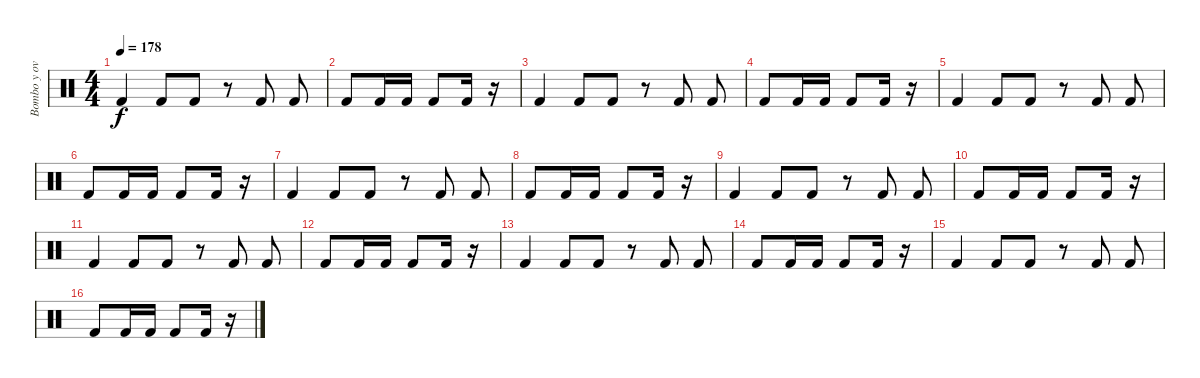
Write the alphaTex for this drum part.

\track ("Bombo y overdubs (bateria)" "Bombo y ov") {instrument percussion}
\staff {score}
\articulation defaults
\ts (4 4)
\tempo 178
\clef neutral
\ks c "Kick (hit) 2".4{dy f} "Kick (hit) 2".8 "Kick (hit) 2".8
r.8 "Kick (hit) 2".8 "Kick (hit) 2".8 |
"Kick (hit) 2".8 "Kick (hit) 2".16 "Kick (hit) 2".16 "Kick (hit) 2".8 "Kick (hit) 2".16 r.16 |
"Kick (hit) 2".4 "Kick (hit) 2".8 "Kick (hit) 2".8 r.8 "Kick (hit) 2".8 "Kick (hit) 2".8 |
"Kick (hit) 2".8 "Kick (hit) 2".16 "Kick (hit) 2".16 "Kick (hit) 2".8 "Kick (hit) 2".16 r.16 |
"Kick (hit) 2".4 "Kick (hit) 2".8 "Kick (hit) 2".8 r.8 "Kick (hit) 2".8 "Kick (hit) 2".8 |
"Kick (hit) 2".8 "Kick (hit) 2".16 "Kick (hit) 2".16 "Kick (hit) 2".8 "Kick (hit) 2".16 r.16 |
"Kick (hit) 2".4 "Kick (hit) 2".8 "Kick (hit) 2".8 r.8 "Kick (hit) 2".8 "Kick (hit) 2".8 |
"Kick (hit) 2".8 "Kick (hit) 2".16 "Kick (hit) 2".16 "Kick (hit) 2".8 "Kick (hit) 2".16 r.16 |
"Kick (hit) 2".4 "Kick (hit) 2".8 "Kick (hit) 2".8 r.8 "Kick (hit) 2".8 "Kick (hit) 2".8 |
"Kick (hit) 2".8 "Kick (hit) 2".16 "Kick (hit) 2".16 "Kick (hit) 2".8 "Kick (hit) 2".16 r.16 |
"Kick (hit) 2".4 "Kick (hit) 2".8 "Kick (hit) 2".8 r.8 "Kick (hit) 2".8 "Kick (hit) 2".8 |
"Kick (hit) 2".8 "Kick (hit) 2".16 "Kick (hit) 2".16 "Kick (hit) 2".8 "Kick (hit) 2".16 r.16 |
"Kick (hit) 2".4 "Kick (hit) 2".8 "Kick (hit) 2".8 r.8 "Kick (hit) 2".8 "Kick (hit) 2".8 |
"Kick (hit) 2".8 "Kick (hit) 2".16 "Kick (hit) 2".16 "Kick (hit) 2".8 "Kick (hit) 2".16 r.16 |
"Kick (hit) 2".4 "Kick (hit) 2".8 "Kick (hit) 2".8 r.8 "Kick (hit) 2".8 "Kick (hit) 2".8 |
"Kick (hit) 2".8 "Kick (hit) 2".16 "Kick (hit) 2".16 "Kick (hit) 2".8 "Kick (hit) 2".16 r.16
